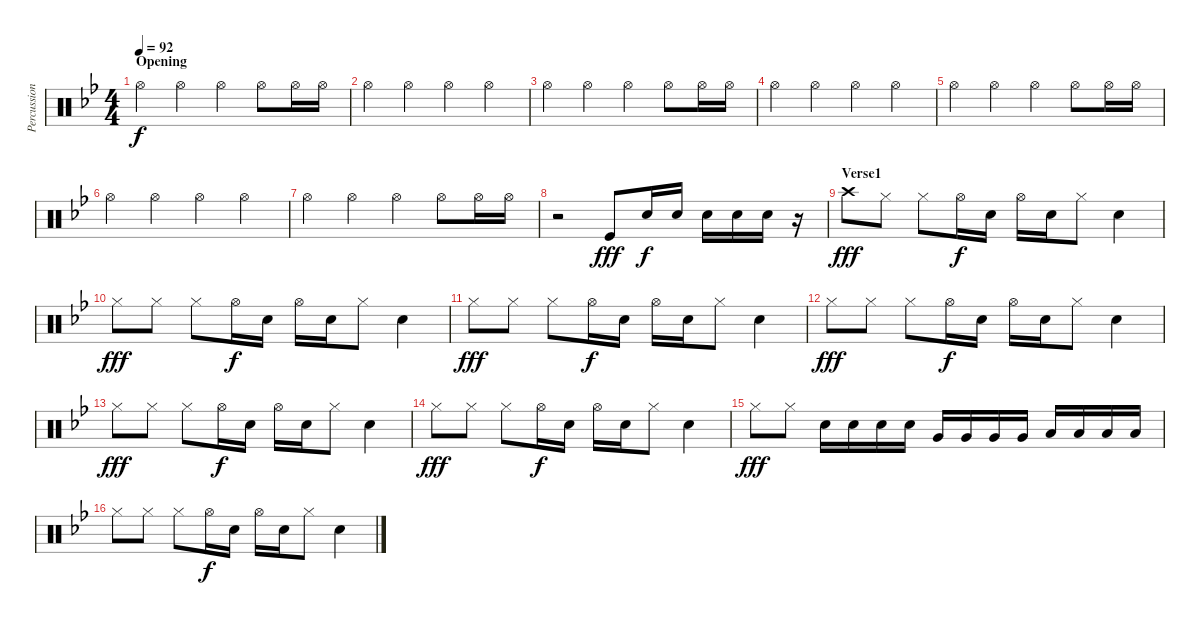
\track ("Percussion" "Percussion") {instrument percussion}
\staff {score}
\articulation defaults
\ts (4 4)
\section ("" "Opening")
\tempo 92
\clef neutral
\ks bb "Hi-Hat (open)".4{dy f volume 6} "Hi-Hat (open)".4 "Hi-Hat (open)".4 "Hi-Hat (open)".8 "Hi-Hat (open)".16 "Hi-Hat (open)".16
|
"Hi-Hat (open)".4 "Hi-Hat (open)".4 "Hi-Hat (open)".4 "Hi-Hat (open)".4 |
"Hi-Hat (open)".4 "Hi-Hat (open)".4 "Hi-Hat (open)".4 "Hi-Hat (open)".8 "Hi-Hat (open)".16 "Hi-Hat (open)".16 |
"Hi-Hat (open)".4 "Hi-Hat (open)".4 "Hi-Hat (open)".4 "Hi-Hat (open)".4 |
"Hi-Hat (open)".4 "Hi-Hat (open)".4 "Hi-Hat (open)".4 "Hi-Hat (open)".8 "Hi-Hat (open)".16 "Hi-Hat (open)".16 |
"Hi-Hat (open)".4 "Hi-Hat (open)".4 "Hi-Hat (open)".4 "Hi-Hat (open)".4 |
"Hi-Hat (open)".4 "Hi-Hat (open)".4 "Hi-Hat (open)".4 "Hi-Hat (open)".8 "Hi-Hat (open)".16 "Hi-Hat (open)".16 |
r.2 "Kick (hit)".8{dy fff volume 16} "Snare (hit) 2".16{dy f} "Snare (hit) 2".16 "Snare (hit) 2".16 "Snare (hit) 2".16 "Snare (hit) 2".16 r.16 |
\section ("" "Verse1")
"Crash high (hit)".8{dy fff volume 13} "Hi-Hat (closed)".8 "Hi-Hat (closed)".8 "Hi-Hat (open)".16{dy f} "Snare (hit) 2".16 "Hi-Hat (open)".16 "Snare (hit) 2".16 "Hi-Hat (closed)".8 "Snare (hit) 2".4 |
"Hi-Hat (closed)".8{dy fff} "Hi-Hat (closed)".8 "Hi-Hat (closed)".8 "Hi-Hat (open)".16{dy f} "Snare (hit) 2".16 "Hi-Hat (open)".16 "Snare (hit) 2".16 "Hi-Hat (closed)".8 "Snare (hit) 2".4 |
"Hi-Hat (closed)".8{dy fff} "Hi-Hat (closed)".8 "Hi-Hat (closed)".8 "Hi-Hat (open)".16{dy f} "Snare (hit) 2".16 "Hi-Hat (open)".16 "Snare (hit) 2".16 "Hi-Hat (closed)".8 "Snare (hit) 2".4 |
"Hi-Hat (closed)".8{dy fff} "Hi-Hat (closed)".8 "Hi-Hat (closed)".8 "Hi-Hat (open)".16{dy f} "Snare (hit) 2".16 "Hi-Hat (open)".16 "Snare (hit) 2".16 "Hi-Hat (closed)".8 "Snare (hit) 2".4 |
"Hi-Hat (closed)".8{dy fff} "Hi-Hat (closed)".8 "Hi-Hat (closed)".8 "Hi-Hat (open)".16{dy f} "Snare (hit) 2".16 "Hi-Hat (open)".16 "Snare (hit) 2".16 "Hi-Hat (closed)".8 "Snare (hit) 2".4 |
"Hi-Hat (closed)".8{dy fff} "Hi-Hat (closed)".8 "Hi-Hat (closed)".8 "Hi-Hat (open)".16{dy f} "Snare (hit) 2".16 "Hi-Hat (open)".16 "Snare (hit) 2".16 "Hi-Hat (closed)".8 "Snare (hit) 2".4 |
"Hi-Hat (closed)".8{dy fff} "Hi-Hat (closed)".8 "Snare (hit) 2".16 "Snare (hit) 2".16 "Snare (hit) 2".16 "Snare (hit) 2".16 "Very Low Tom (hit)".16 "Very Low Tom (hit)".16 "Very Low Tom (hit)".16 "Very Low Tom (hit)".16 "Low Floor Tom (hit)".16 "Low Floor Tom (hit)".16 "Low Floor Tom (hit)".16 "Low Floor Tom (hit)".16 |
"Hi-Hat (closed)".8 "Hi-Hat (closed)".8 "Hi-Hat (closed)".8 "Hi-Hat (open)".16{dy f} "Snare (hit) 2".16 "Hi-Hat (open)".16 "Snare (hit) 2".16 "Hi-Hat (closed)".8 "Snare (hit) 2".4
